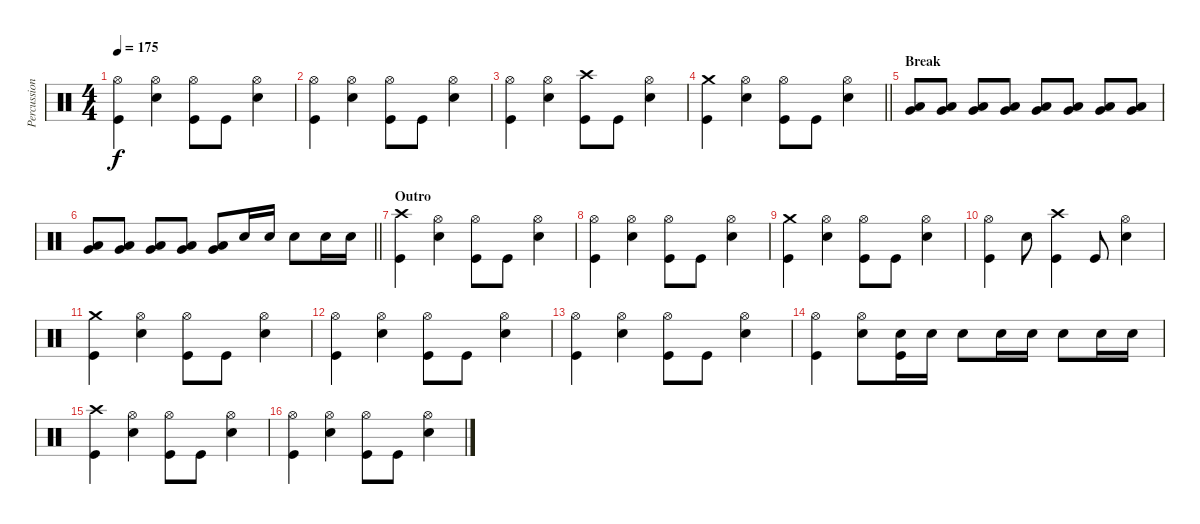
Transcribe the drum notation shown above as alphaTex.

\track ("Percussion" "Percussion") {instrument percussion}
\staff {score}
\articulation defaults
\ts (4 4)
\tempo 175
\clef neutral
\ks c
("Hi-Hat (open)" "Kick (hit)").4{dy f} ("Hi-Hat (open)" "Electric Snare (hit)").4 ("Hi-Hat (open)" "Kick (hit)").8 "Kick (hit)".8 ("Hi-Hat (open)" "Electric Snare (hit)").4 |
("Hi-Hat (open)" "Kick (hit)").4 ("Hi-Hat (open)" "Electric Snare (hit)").4 ("Hi-Hat (open)" "Kick (hit)").8 "Kick (hit)".8 ("Hi-Hat (open)" "Electric Snare (hit)").4 |
("Hi-Hat (open)" "Kick (hit)").4 ("Hi-Hat (open)" "Electric Snare (hit)").4 ("Crash high (hit)" "Kick (hit)").8 "Kick (hit)".8 ("Hi-Hat (open)" "Electric Snare (hit)").4 |
\barLineRight lightlight
("Crash medium (hit)" "Kick (hit)").4 ("Hi-Hat (open)" "Electric Snare (hit)").4 ("Hi-Hat (open)" "Kick (hit)").8 "Kick (hit)".8 ("Hi-Hat (open)" "Electric Snare (hit)").4 |
\section ("" "Break")
("Very Low Tom (hit)" "Low Floor Tom (hit)").8 ("Very Low Tom (hit)" "Low Floor Tom (hit)").8 ("Very Low Tom (hit)" "Low Floor Tom (hit)").8 ("Very Low Tom (hit)" "Low Floor Tom (hit)").8 ("Very Low Tom (hit)" "Low Floor Tom (hit)").8 ("Very Low Tom (hit)" "Low Floor Tom (hit)").8 ("Very Low Tom (hit)" "Low Floor Tom (hit)").8 ("Very Low Tom (hit)" "Low Floor Tom (hit)").8 |
\barLineRight lightlight
("Very Low Tom (hit)" "Low Floor Tom (hit)").8 ("Very Low Tom (hit)" "Low Floor Tom (hit)").8 ("Very Low Tom (hit)" "Low Floor Tom (hit)").8 ("Very Low Tom (hit)" "Low Floor Tom (hit)").8 ("Very Low Tom (hit)" "Low Floor Tom (hit)").8 "Electric Snare (hit)".16 "Electric Snare (hit)".16 "Electric Snare (hit)".8 "Electric Snare (hit)".16 "Electric Snare (hit)".16 |
\section ("" "Outro")
("Crash high (hit)" "Kick (hit)").4 ("Hi-Hat (open)" "Electric Snare (hit)").4 ("Hi-Hat (open)" "Kick (hit)").8 "Kick (hit)".8 ("Hi-Hat (open)" "Electric Snare (hit)").4 |
("Hi-Hat (open)" "Kick (hit)").4 ("Hi-Hat (open)" "Electric Snare (hit)").4 ("Hi-Hat (open)" "Kick (hit)").8 "Kick (hit)".8 ("Hi-Hat (open)" "Electric Snare (hit)").4 |
("Crash medium (hit)" "Kick (hit)").4 ("Hi-Hat (open)" "Electric Snare (hit)").4 ("Hi-Hat (open)" "Kick (hit)").8 "Kick (hit)".8 ("Hi-Hat (open)" "Electric Snare (hit)").4 |
("Hi-Hat (open)" "Kick (hit)").4 "Electric Snare (hit)".8 ("Crash high (hit)" "Kick (hit)").4 "Kick (hit)".8 ("Hi-Hat (open)" "Electric Snare (hit)").4 |
("Crash medium (hit)" "Kick (hit)").4 ("Hi-Hat (open)" "Electric Snare (hit)").4 ("Hi-Hat (open)" "Kick (hit)").8 "Kick (hit)".8 ("Hi-Hat (open)" "Electric Snare (hit)").4 |
("Hi-Hat (open)" "Kick (hit)").4 ("Hi-Hat (open)" "Electric Snare (hit)").4 ("Hi-Hat (open)" "Kick (hit)").8 "Kick (hit)".8 ("Hi-Hat (open)" "Electric Snare (hit)").4 |
("Hi-Hat (open)" "Kick (hit)").4 ("Hi-Hat (open)" "Electric Snare (hit)").4 ("Hi-Hat (open)" "Kick (hit)").8 "Kick (hit)".8 ("Hi-Hat (open)" "Electric Snare (hit)").4 |
("Hi-Hat (open)" "Kick (hit)").4 ("Hi-Hat (open)" "Electric Snare (hit)").8 ("Electric Snare (hit)" "Kick (hit)").16 "Electric Snare (hit)".16 "Electric Snare (hit)".8 "Electric Snare (hit)".16 "Electric Snare (hit)".16 "Electric Snare (hit)".8 "Electric Snare (hit)".16 "Electric Snare (hit)".16 |
("Crash high (hit)" "Kick (hit)").4 ("Hi-Hat (open)" "Electric Snare (hit)").4 ("Hi-Hat (open)" "Kick (hit)").8 "Kick (hit)".8 ("Hi-Hat (open)" "Electric Snare (hit)").4 |
("Hi-Hat (open)" "Kick (hit)").4 ("Hi-Hat (open)" "Electric Snare (hit)").4 ("Hi-Hat (open)" "Kick (hit)").8 "Kick (hit)".8 ("Hi-Hat (open)" "Electric Snare (hit)").4
